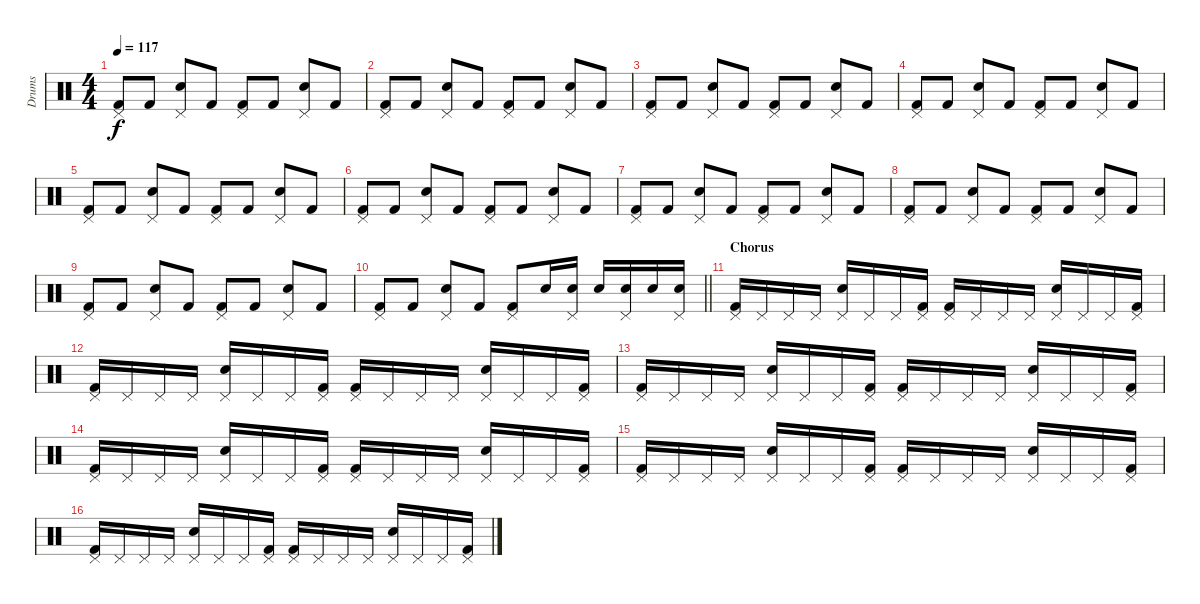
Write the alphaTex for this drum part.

\track ("Drums" "Drums") {instrument percussion}
\staff {score}
\articulation defaults
\ts (4 4)
\tempo 117
\clef neutral
\ks c
("Kick (hit) 2" "Pedal Hi-Hat (hit)").8{dy f} "Kick (hit) 2".8 ("Snare (hit) 2" "Pedal Hi-Hat (hit)").8 "Kick (hit) 2".8 ("Kick (hit) 2" "Pedal Hi-Hat (hit)").8 "Kick (hit) 2".8 ("Snare (hit) 2" "Pedal Hi-Hat (hit)").8 "Kick (hit) 2".8 |
("Kick (hit) 2" "Pedal Hi-Hat (hit)").8 "Kick (hit) 2".8 ("Snare (hit) 2" "Pedal Hi-Hat (hit)").8 "Kick (hit) 2".8 ("Kick (hit) 2" "Pedal Hi-Hat (hit)").8 "Kick (hit) 2".8 ("Snare (hit) 2" "Pedal Hi-Hat (hit)").8 "Kick (hit) 2".8 |
("Kick (hit) 2" "Pedal Hi-Hat (hit)").8 "Kick (hit) 2".8 ("Snare (hit) 2" "Pedal Hi-Hat (hit)").8 "Kick (hit) 2".8 ("Kick (hit) 2" "Pedal Hi-Hat (hit)").8 "Kick (hit) 2".8 ("Snare (hit) 2" "Pedal Hi-Hat (hit)").8 "Kick (hit) 2".8 |
("Kick (hit) 2" "Pedal Hi-Hat (hit)").8 "Kick (hit) 2".8 ("Snare (hit) 2" "Pedal Hi-Hat (hit)").8 "Kick (hit) 2".8 ("Kick (hit) 2" "Pedal Hi-Hat (hit)").8 "Kick (hit) 2".8 ("Snare (hit) 2" "Pedal Hi-Hat (hit)").8 "Kick (hit) 2".8 |
("Kick (hit) 2" "Pedal Hi-Hat (hit)").8 "Kick (hit) 2".8 ("Snare (hit) 2" "Pedal Hi-Hat (hit)").8 "Kick (hit) 2".8 ("Kick (hit) 2" "Pedal Hi-Hat (hit)").8 "Kick (hit) 2".8 ("Snare (hit) 2" "Pedal Hi-Hat (hit)").8 "Kick (hit) 2".8 |
("Kick (hit) 2" "Pedal Hi-Hat (hit)").8 "Kick (hit) 2".8 ("Snare (hit) 2" "Pedal Hi-Hat (hit)").8 "Kick (hit) 2".8 ("Kick (hit) 2" "Pedal Hi-Hat (hit)").8 "Kick (hit) 2".8 ("Snare (hit) 2" "Pedal Hi-Hat (hit)").8 "Kick (hit) 2".8 |
("Kick (hit) 2" "Pedal Hi-Hat (hit)").8 "Kick (hit) 2".8 ("Snare (hit) 2" "Pedal Hi-Hat (hit)").8 "Kick (hit) 2".8 ("Kick (hit) 2" "Pedal Hi-Hat (hit)").8 "Kick (hit) 2".8 ("Snare (hit) 2" "Pedal Hi-Hat (hit)").8 "Kick (hit) 2".8 |
("Kick (hit) 2" "Pedal Hi-Hat (hit)").8 "Kick (hit) 2".8 ("Snare (hit) 2" "Pedal Hi-Hat (hit)").8 "Kick (hit) 2".8 ("Kick (hit) 2" "Pedal Hi-Hat (hit)").8 "Kick (hit) 2".8 ("Snare (hit) 2" "Pedal Hi-Hat (hit)").8 "Kick (hit) 2".8 |
("Kick (hit) 2" "Pedal Hi-Hat (hit)").8 "Kick (hit) 2".8 ("Snare (hit) 2" "Pedal Hi-Hat (hit)").8 "Kick (hit) 2".8 ("Kick (hit) 2" "Pedal Hi-Hat (hit)").8 "Kick (hit) 2".8 ("Snare (hit) 2" "Pedal Hi-Hat (hit)").8 "Kick (hit) 2".8 |
\barLineRight lightlight
("Kick (hit) 2" "Pedal Hi-Hat (hit)").8 "Kick (hit) 2".8 ("Snare (hit) 2" "Pedal Hi-Hat (hit)").8 "Kick (hit) 2".8 ("Kick (hit) 2" "Pedal Hi-Hat (hit)").8 "Snare (hit) 2".16 ("Snare (hit) 2" "Pedal Hi-Hat (hit)").16 "Snare (hit) 2".16 ("Snare (hit) 2" "Pedal Hi-Hat (hit)").16 "Snare (hit) 2".16 ("Snare (hit) 2" "Pedal Hi-Hat (hit)").16 |
\section ("" "Chorus")
("Kick (hit) 2" "Pedal Hi-Hat (hit)").16 "Pedal Hi-Hat (hit)".16 "Pedal Hi-Hat (hit)".16 "Pedal Hi-Hat (hit)".16 ("Snare (hit) 2" "Pedal Hi-Hat (hit)").16 "Pedal Hi-Hat (hit)".16 "Pedal Hi-Hat (hit)".16 ("Kick (hit) 2" "Pedal Hi-Hat (hit)").16 ("Kick (hit) 2" "Pedal Hi-Hat (hit)").16 "Pedal Hi-Hat (hit)".16 "Pedal Hi-Hat (hit)".16 "Pedal Hi-Hat (hit)".16 ("Snare (hit) 2" "Pedal Hi-Hat (hit)").16 "Pedal Hi-Hat (hit)".16 "Pedal Hi-Hat (hit)".16 ("Kick (hit) 2" "Pedal Hi-Hat (hit)").16 |
("Kick (hit) 2" "Pedal Hi-Hat (hit)").16 "Pedal Hi-Hat (hit)".16 "Pedal Hi-Hat (hit)".16 "Pedal Hi-Hat (hit)".16 ("Snare (hit) 2" "Pedal Hi-Hat (hit)").16 "Pedal Hi-Hat (hit)".16 "Pedal Hi-Hat (hit)".16 ("Kick (hit) 2" "Pedal Hi-Hat (hit)").16 ("Kick (hit) 2" "Pedal Hi-Hat (hit)").16 "Pedal Hi-Hat (hit)".16 "Pedal Hi-Hat (hit)".16 "Pedal Hi-Hat (hit)".16 ("Snare (hit) 2" "Pedal Hi-Hat (hit)").16 "Pedal Hi-Hat (hit)".16 "Pedal Hi-Hat (hit)".16 ("Kick (hit) 2" "Pedal Hi-Hat (hit)").16 |
("Kick (hit) 2" "Pedal Hi-Hat (hit)").16 "Pedal Hi-Hat (hit)".16 "Pedal Hi-Hat (hit)".16 "Pedal Hi-Hat (hit)".16 ("Snare (hit) 2" "Pedal Hi-Hat (hit)").16 "Pedal Hi-Hat (hit)".16 "Pedal Hi-Hat (hit)".16 ("Kick (hit) 2" "Pedal Hi-Hat (hit)").16 ("Kick (hit) 2" "Pedal Hi-Hat (hit)").16 "Pedal Hi-Hat (hit)".16 "Pedal Hi-Hat (hit)".16 "Pedal Hi-Hat (hit)".16 ("Snare (hit) 2" "Pedal Hi-Hat (hit)").16 "Pedal Hi-Hat (hit)".16 "Pedal Hi-Hat (hit)".16 ("Kick (hit) 2" "Pedal Hi-Hat (hit)").16 |
("Kick (hit) 2" "Pedal Hi-Hat (hit)").16 "Pedal Hi-Hat (hit)".16 "Pedal Hi-Hat (hit)".16 "Pedal Hi-Hat (hit)".16 ("Snare (hit) 2" "Pedal Hi-Hat (hit)").16 "Pedal Hi-Hat (hit)".16 "Pedal Hi-Hat (hit)".16 ("Kick (hit) 2" "Pedal Hi-Hat (hit)").16 ("Kick (hit) 2" "Pedal Hi-Hat (hit)").16 "Pedal Hi-Hat (hit)".16 "Pedal Hi-Hat (hit)".16 "Pedal Hi-Hat (hit)".16 ("Snare (hit) 2" "Pedal Hi-Hat (hit)").16 "Pedal Hi-Hat (hit)".16 "Pedal Hi-Hat (hit)".16 ("Kick (hit) 2" "Pedal Hi-Hat (hit)").16 |
("Kick (hit) 2" "Pedal Hi-Hat (hit)").16 "Pedal Hi-Hat (hit)".16 "Pedal Hi-Hat (hit)".16 "Pedal Hi-Hat (hit)".16 ("Snare (hit) 2" "Pedal Hi-Hat (hit)").16 "Pedal Hi-Hat (hit)".16 "Pedal Hi-Hat (hit)".16 ("Kick (hit) 2" "Pedal Hi-Hat (hit)").16 ("Kick (hit) 2" "Pedal Hi-Hat (hit)").16 "Pedal Hi-Hat (hit)".16 "Pedal Hi-Hat (hit)".16 "Pedal Hi-Hat (hit)".16 ("Snare (hit) 2" "Pedal Hi-Hat (hit)").16 "Pedal Hi-Hat (hit)".16 "Pedal Hi-Hat (hit)".16 ("Kick (hit) 2" "Pedal Hi-Hat (hit)").16 |
("Kick (hit) 2" "Pedal Hi-Hat (hit)").16 "Pedal Hi-Hat (hit)".16 "Pedal Hi-Hat (hit)".16 "Pedal Hi-Hat (hit)".16 ("Snare (hit) 2" "Pedal Hi-Hat (hit)").16 "Pedal Hi-Hat (hit)".16 "Pedal Hi-Hat (hit)".16 ("Kick (hit) 2" "Pedal Hi-Hat (hit)").16 ("Kick (hit) 2" "Pedal Hi-Hat (hit)").16 "Pedal Hi-Hat (hit)".16 "Pedal Hi-Hat (hit)".16 "Pedal Hi-Hat (hit)".16 ("Snare (hit) 2" "Pedal Hi-Hat (hit)").16 "Pedal Hi-Hat (hit)".16 "Pedal Hi-Hat (hit)".16 ("Kick (hit) 2" "Pedal Hi-Hat (hit)").16
